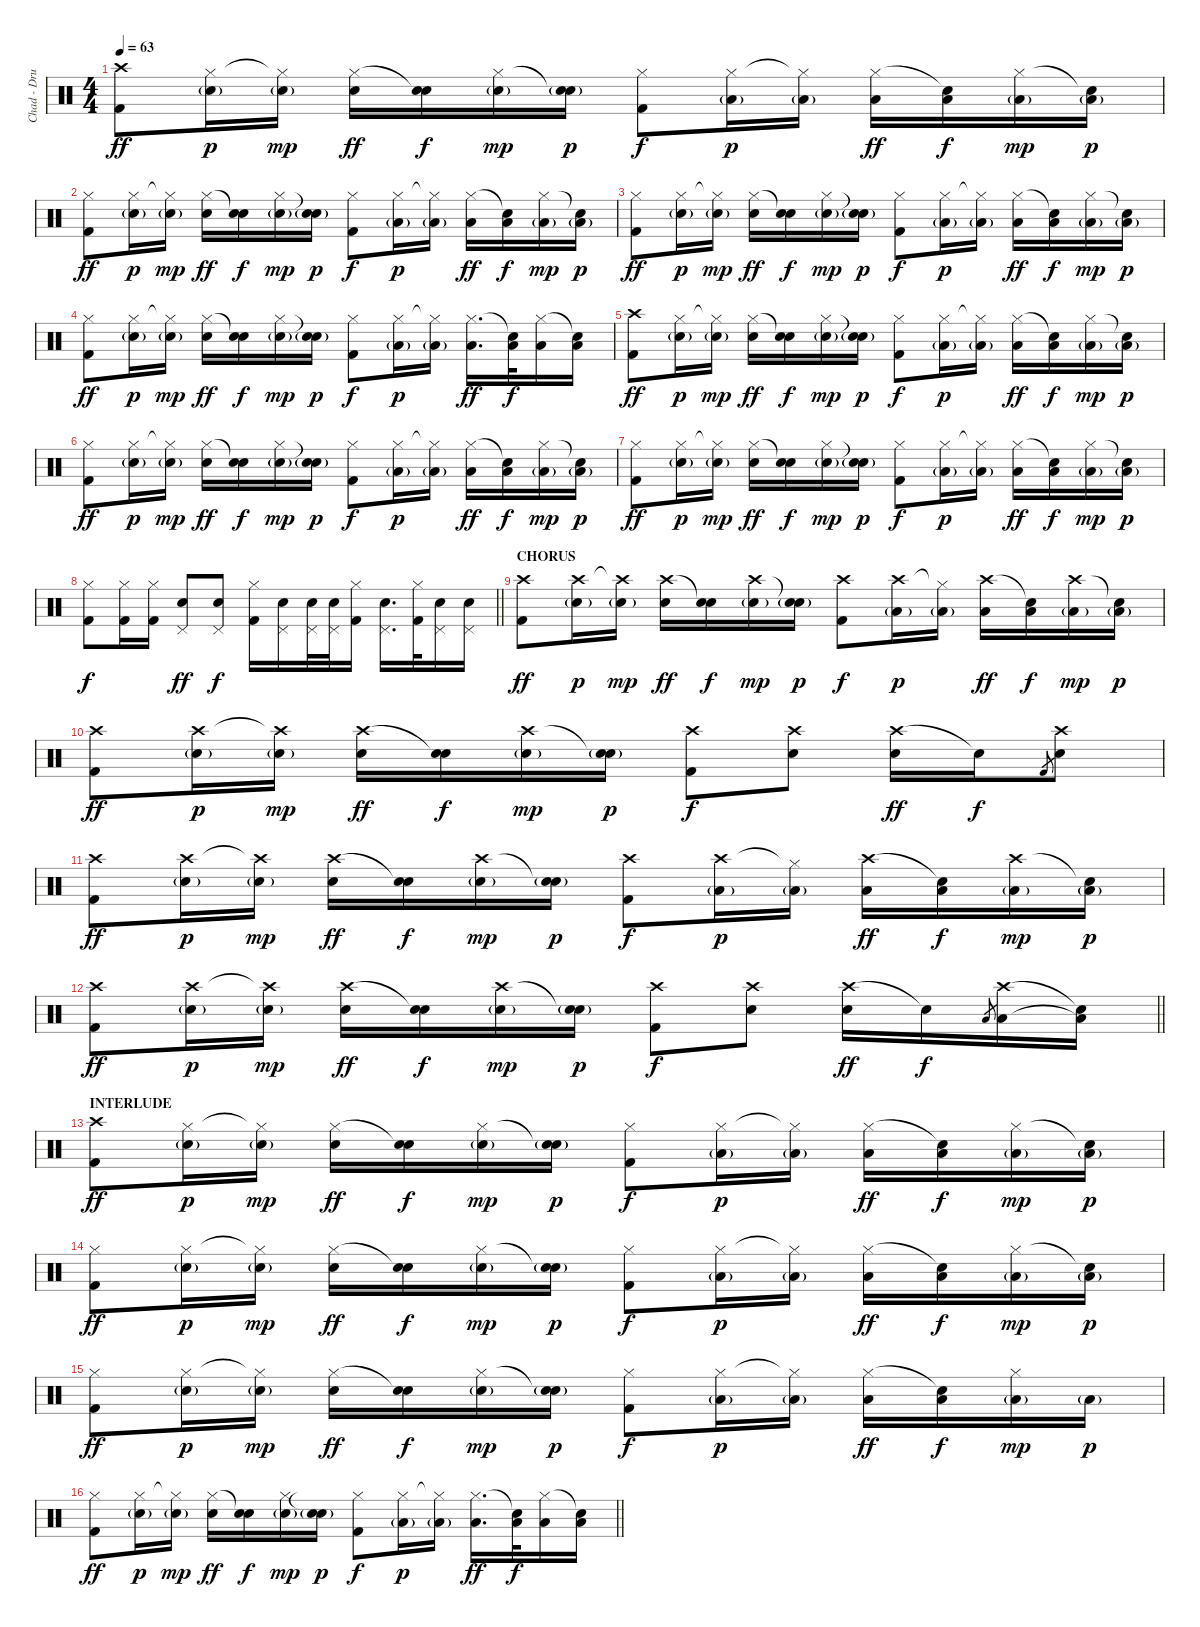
\track ("Chad - Drums" "Chad - Dru") {instrument percussion}
\staff {score}
\articulation defaults
\ts (4 4)
\tempo 63
\clef neutral
\ks c
("Crash high (hit)" "Kick (hit) 2").8{dy ff} ("Hi-Hat (closed)" "Snare (hit) 2"{g}).16{dy p} ("Hi-Hat (closed)"{t} "Snare (hit) 2"{g}).16{dy mp} ("Hi-Hat (closed)" "Snare (hit) 2").16{dy ff} ("Snare (hit)"{t} "Snare (hit) 2").16{dy f} ("Hi-Hat (closed)" "Snare (hit) 2"{g}).16{dy mp} ("Snare (hit)"{t} "Snare (hit) 2"{g}).16{dy p} ("Hi-Hat (closed)" "Kick (hit) 2").8{dy f} ("Hi-Hat (closed)" "Low Floor Tom (hit)"{g}).16{dy p} ("Hi-Hat (closed)"{t} "Low Floor Tom (hit)"{g}).16 ("Hi-Hat (closed)" "Low Floor Tom (hit)").16{dy ff} ("Snare (hit)"{t} "Low Floor Tom (hit)").16{dy f} ("Hi-Hat (closed)" "Low Floor Tom (hit)"{g}).16{dy mp} ("Snare (hit)"{t} "Low Floor Tom (hit)"{g}).16{dy p} |
("Hi-Hat (closed)" "Kick (hit) 2").8{dy ff} ("Hi-Hat (closed)" "Snare (hit) 2"{g}).16{dy p} ("Hi-Hat (closed)"{t} "Snare (hit) 2"{g}).16{dy mp} ("Hi-Hat (closed)" "Snare (hit) 2").16{dy ff} ("Snare (hit)"{t} "Snare (hit) 2").16{dy f} ("Hi-Hat (closed)" "Snare (hit) 2"{g}).16{dy mp} ("Snare (hit)"{t} "Snare (hit) 2"{g}).16{dy p} ("Hi-Hat (closed)" "Kick (hit) 2").8{dy f} ("Hi-Hat (closed)" "Low Floor Tom (hit)"{g}).16{dy p} ("Hi-Hat (closed)"{t} "Low Floor Tom (hit)"{g}).16 ("Hi-Hat (closed)" "Low Floor Tom (hit)").16{dy ff} ("Snare (hit)"{t} "Low Floor Tom (hit)").16{dy f} ("Hi-Hat (closed)" "Low Floor Tom (hit)"{g}).16{dy mp} ("Snare (hit)"{t} "Low Floor Tom (hit)"{g}).16{dy p} |
("Hi-Hat (closed)" "Kick (hit) 2").8{dy ff} ("Hi-Hat (closed)" "Snare (hit) 2"{g}).16{dy p} ("Hi-Hat (closed)"{t} "Snare (hit) 2"{g}).16{dy mp} ("Hi-Hat (closed)" "Snare (hit) 2").16{dy ff} ("Snare (hit)"{t} "Snare (hit) 2").16{dy f} ("Hi-Hat (closed)" "Snare (hit) 2"{g}).16{dy mp} ("Snare (hit)"{t} "Snare (hit) 2"{g}).16{dy p} ("Hi-Hat (closed)" "Kick (hit) 2").8{dy f} ("Hi-Hat (closed)" "Low Floor Tom (hit)"{g}).16{dy p} ("Hi-Hat (closed)"{t} "Low Floor Tom (hit)"{g}).16 ("Hi-Hat (closed)" "Low Floor Tom (hit)").16{dy ff} ("Snare (hit)"{t} "Low Floor Tom (hit)").16{dy f} ("Hi-Hat (closed)" "Low Floor Tom (hit)"{g}).16{dy mp} ("Snare (hit)"{t} "Low Floor Tom (hit)"{g}).16{dy p} |
("Hi-Hat (closed)" "Kick (hit) 2").8{dy ff} ("Hi-Hat (closed)" "Snare (hit) 2"{g}).16{dy p} ("Hi-Hat (closed)"{t} "Snare (hit) 2"{g}).16{dy mp} ("Hi-Hat (closed)" "Snare (hit) 2").16{dy ff} ("Snare (hit)"{t} "Snare (hit) 2").16{dy f} ("Hi-Hat (closed)" "Snare (hit) 2"{g}).16{dy mp} ("Snare (hit)"{t} "Snare (hit) 2"{g}).16{dy p} ("Hi-Hat (closed)" "Kick (hit) 2").8{dy f} ("Hi-Hat (closed)" "Low Floor Tom (hit)"{g}).16{dy p} ("Hi-Hat (closed)"{t} "Low Floor Tom (hit)"{g}).16 ("Hi-Hat (closed)" "Low Floor Tom (hit)").16{d dy ff} ("Snare (hit)"{t} "Low Floor Tom (hit)").32{dy f} ("Hi-Hat (closed)" "Low Floor Tom (hit)").16 ("Snare (hit)"{t} "Low Floor Tom (hit)").16 |
("Crash high (hit)" "Kick (hit) 2").8{dy ff} ("Hi-Hat (closed)" "Snare (hit) 2"{g}).16{dy p} ("Hi-Hat (closed)"{t} "Snare (hit) 2"{g}).16{dy mp} ("Hi-Hat (closed)" "Snare (hit) 2").16{dy ff} ("Snare (hit)"{t} "Snare (hit) 2").16{dy f} ("Hi-Hat (closed)" "Snare (hit) 2"{g}).16{dy mp} ("Snare (hit)"{t} "Snare (hit) 2"{g}).16{dy p} ("Hi-Hat (closed)" "Kick (hit) 2").8{dy f} ("Hi-Hat (closed)" "Low Floor Tom (hit)"{g}).16{dy p} ("Hi-Hat (closed)"{t} "Low Floor Tom (hit)"{g}).16 ("Hi-Hat (closed)" "Low Floor Tom (hit)").16{dy ff} ("Snare (hit)"{t} "Low Floor Tom (hit)").16{dy f} ("Hi-Hat (closed)" "Low Floor Tom (hit)"{g}).16{dy mp} ("Snare (hit)"{t} "Low Floor Tom (hit)"{g}).16{dy p} |
("Hi-Hat (closed)" "Kick (hit) 2").8{dy ff} ("Hi-Hat (closed)" "Snare (hit) 2"{g}).16{dy p} ("Hi-Hat (closed)"{t} "Snare (hit) 2"{g}).16{dy mp} ("Hi-Hat (closed)" "Snare (hit) 2").16{dy ff} ("Snare (hit)"{t} "Snare (hit) 2").16{dy f} ("Hi-Hat (closed)" "Snare (hit) 2"{g}).16{dy mp} ("Snare (hit)"{t} "Snare (hit) 2"{g}).16{dy p} ("Hi-Hat (closed)" "Kick (hit) 2").8{dy f} ("Hi-Hat (closed)" "Low Floor Tom (hit)"{g}).16{dy p} ("Hi-Hat (closed)"{t} "Low Floor Tom (hit)"{g}).16 ("Hi-Hat (closed)" "Low Floor Tom (hit)").16{dy ff} ("Snare (hit)"{t} "Low Floor Tom (hit)").16{dy f} ("Hi-Hat (closed)" "Low Floor Tom (hit)"{g}).16{dy mp} ("Snare (hit)"{t} "Low Floor Tom (hit)"{g}).16{dy p} |
("Hi-Hat (closed)" "Kick (hit) 2").8{dy ff} ("Hi-Hat (closed)" "Snare (hit) 2"{g}).16{dy p} ("Hi-Hat (closed)"{t} "Snare (hit) 2"{g}).16{dy mp} ("Hi-Hat (closed)" "Snare (hit) 2").16{dy ff} ("Snare (hit)"{t} "Snare (hit) 2").16{dy f} ("Hi-Hat (closed)" "Snare (hit) 2"{g}).16{dy mp} ("Snare (hit)"{t} "Snare (hit) 2"{g}).16{dy p} ("Hi-Hat (closed)" "Kick (hit) 2").8{dy f} ("Hi-Hat (closed)" "Low Floor Tom (hit)"{g}).16{dy p} ("Hi-Hat (closed)"{t} "Low Floor Tom (hit)"{g}).16 ("Hi-Hat (closed)" "Low Floor Tom (hit)").16{dy ff} ("Snare (hit)"{t} "Low Floor Tom (hit)").16{dy f} ("Hi-Hat (closed)" "Low Floor Tom (hit)"{g}).16{dy mp} ("Snare (hit)"{t} "Low Floor Tom (hit)"{g}).16{dy p} |
\barLineRight lightlight
("Hi-Hat (closed)" "Kick (hit) 2").8{dy f} ("Hi-Hat (closed)" "Kick (hit) 2").16 ("Hi-Hat (closed)" "Kick (hit) 2").16 ("Pedal Hi-Hat (hit)" "Snare (hit) 2").8{dy ff} ("Pedal Hi-Hat (hit)" "Snare (hit) 2").8{dy f} ("Hi-Hat (closed)" "Kick (hit) 2").16 ("Pedal Hi-Hat (hit)" "Snare (hit) 2").16 ("Pedal Hi-Hat (hit)" "Snare (hit) 2").32 ("Pedal Hi-Hat (hit)" "Snare (hit) 2").32 ("Hi-Hat (closed)" "Kick (hit) 2").16 ("Pedal Hi-Hat (hit)" "Snare (hit) 2").16{d} ("Hi-Hat (closed)" "Kick (hit) 2").32 ("Pedal Hi-Hat (hit)" "Snare (hit) 2").16 ("Pedal Hi-Hat (hit)" "Snare (hit) 2").16 |
\section ("" "CHORUS")
("Crash high (hit)" "Kick (hit) 2").8{dy ff volume 16} ("Crash high (hit)" "Snare (hit) 2"{g}).16{dy p} ("Crash high (hit)"{t} "Snare (hit) 2"{g}).16{dy mp} ("Crash high (hit)" "Snare (hit) 2").16{dy ff} ("Snare (hit)"{t} "Snare (hit) 2").16{dy f} ("Crash high (hit)" "Snare (hit) 2"{g}).16{dy mp} ("Snare (hit)"{t} "Snare (hit) 2"{g}).16{dy p} ("Crash high (hit)" "Kick (hit) 2").8{dy f} ("Crash high (hit)" "Low Floor Tom (hit)"{g}).16{dy p} ("Hi-Hat (closed)"{t} "Low Floor Tom (hit)"{g}).16 ("Crash high (hit)" "Low Floor Tom (hit)").16{dy ff} ("Snare (hit)"{t} "Low Floor Tom (hit)").16{dy f} ("Crash high (hit)" "Low Floor Tom (hit)"{g}).16{dy mp} ("Snare (hit)"{t} "Low Floor Tom (hit)"{g}).16{dy p} |
("Crash high (hit)" "Kick (hit) 2").8{dy ff} ("Crash high (hit)" "Snare (hit) 2"{g}).16{dy p} ("Crash high (hit)"{t} "Snare (hit) 2"{g}).16{dy mp} ("Crash high (hit)" "Snare (hit) 2").16{dy ff} ("Snare (hit)"{t} "Snare (hit) 2").16{dy f} ("Crash high (hit)" "Snare (hit) 2"{g}).16{dy mp} ("Snare (hit)"{t} "Snare (hit) 2"{g}).16{dy p} ("Crash high (hit)" "Kick (hit) 2").8{dy f} ("Crash high (hit)" "Snare (hit) 2").8 ("Crash high (hit)" "Snare (hit) 2").16{dy ff} "Snare (hit)"{t}.16{dy f} "Kick (hit) 2".8{gr} ("Crash high (hit)" "Snare (hit) 2").8 |
("Crash high (hit)" "Kick (hit) 2").8{dy ff} ("Crash high (hit)" "Snare (hit) 2"{g}).16{dy p} ("Crash high (hit)"{t} "Snare (hit) 2"{g}).16{dy mp} ("Crash high (hit)" "Snare (hit) 2").16{dy ff} ("Snare (hit)"{t} "Snare (hit) 2").16{dy f} ("Crash high (hit)" "Snare (hit) 2"{g}).16{dy mp} ("Snare (hit)"{t} "Snare (hit) 2"{g}).16{dy p} ("Crash high (hit)" "Kick (hit) 2").8{dy f} ("Crash high (hit)" "Low Floor Tom (hit)"{g}).16{dy p} ("Hi-Hat (closed)"{t} "Low Floor Tom (hit)"{g}).16 ("Crash high (hit)" "Low Floor Tom (hit)").16{dy ff} ("Snare (hit)"{t} "Low Floor Tom (hit)").16{dy f} ("Crash high (hit)" "Low Floor Tom (hit)"{g}).16{dy mp} ("Snare (hit)"{t} "Low Floor Tom (hit)"{g}).16{dy p} |
\barLineRight lightlight
("Crash high (hit)" "Kick (hit) 2").8{dy ff} ("Crash high (hit)" "Snare (hit) 2"{g}).16{dy p} ("Crash high (hit)"{t} "Snare (hit) 2"{g}).16{dy mp} ("Crash high (hit)" "Snare (hit) 2").16{dy ff} ("Snare (hit)"{t} "Snare (hit) 2").16{dy f} ("Crash high (hit)" "Snare (hit) 2"{g}).16{dy mp} ("Snare (hit)"{t} "Snare (hit) 2"{g}).16{dy p} ("Crash high (hit)" "Kick (hit) 2").8{dy f} ("Crash high (hit)" "Snare (hit) 2").8 ("Crash high (hit)" "Snare (hit) 2").16{dy ff} "Snare (hit)"{t}.16{dy f} "Low Floor Tom (hit)".8{gr} ("Crash high (hit)" "Low Floor Tom (hit)").16 ("Snare (hit)"{t} "Low Floor Tom (hit)"{t}).16 |
\section ("" "INTERLUDE")
("Crash high (hit)" "Kick (hit) 2").8{dy ff volume 12} ("Hi-Hat (closed)" "Snare (hit) 2"{g}).16{dy p} ("Hi-Hat (closed)"{t} "Snare (hit) 2"{g}).16{dy mp} ("Hi-Hat (closed)" "Snare (hit) 2").16{dy ff} ("Snare (hit)"{t} "Snare (hit) 2").16{dy f} ("Hi-Hat (closed)" "Snare (hit) 2"{g}).16{dy mp} ("Snare (hit)"{t} "Snare (hit) 2"{g}).16{dy p} ("Hi-Hat (closed)" "Kick (hit) 2").8{dy f} ("Hi-Hat (closed)" "Low Floor Tom (hit)"{g}).16{dy p} ("Hi-Hat (closed)"{t} "Low Floor Tom (hit)"{g}).16 ("Hi-Hat (closed)" "Low Floor Tom (hit)").16{dy ff} ("Snare (hit)"{t} "Low Floor Tom (hit)").16{dy f} ("Hi-Hat (closed)" "Low Floor Tom (hit)"{g}).16{dy mp} ("Snare (hit)"{t} "Low Floor Tom (hit)"{g}).16{dy p} |
("Hi-Hat (closed)" "Kick (hit) 2").8{dy ff} ("Hi-Hat (closed)" "Snare (hit) 2"{g}).16{dy p} ("Hi-Hat (closed)"{t} "Snare (hit) 2"{g}).16{dy mp} ("Hi-Hat (closed)" "Snare (hit) 2").16{dy ff} ("Snare (hit)"{t} "Snare (hit) 2").16{dy f} ("Hi-Hat (closed)" "Snare (hit) 2"{g}).16{dy mp} ("Snare (hit)"{t} "Snare (hit) 2"{g}).16{dy p} ("Hi-Hat (closed)" "Kick (hit) 2").8{dy f} ("Hi-Hat (closed)" "Low Floor Tom (hit)"{g}).16{dy p} ("Hi-Hat (closed)"{t} "Low Floor Tom (hit)"{g}).16 ("Hi-Hat (closed)" "Low Floor Tom (hit)").16{dy ff} ("Snare (hit)"{t} "Low Floor Tom (hit)").16{dy f} ("Hi-Hat (closed)" "Low Floor Tom (hit)"{g}).16{dy mp} ("Snare (hit)"{t} "Low Floor Tom (hit)"{g}).16{dy p} |
("Hi-Hat (closed)" "Kick (hit) 2").8{dy ff} ("Hi-Hat (closed)" "Snare (hit) 2"{g}).16{dy p} ("Hi-Hat (closed)"{t} "Snare (hit) 2"{g}).16{dy mp} ("Hi-Hat (closed)" "Snare (hit) 2").16{dy ff} ("Snare (hit)"{t} "Snare (hit) 2").16{dy f} ("Hi-Hat (closed)" "Snare (hit) 2"{g}).16{dy mp} ("Snare (hit)"{t} "Snare (hit) 2"{g}).16{dy p} ("Hi-Hat (closed)" "Kick (hit) 2").8{dy f} ("Hi-Hat (closed)" "Low Floor Tom (hit)"{g}).16{dy p} ("Hi-Hat (closed)"{t} "Low Floor Tom (hit)"{g}).16 ("Hi-Hat (closed)" "Low Floor Tom (hit)").16{dy ff} ("Snare (hit)"{t} "Low Floor Tom (hit)").16{dy f} ("Hi-Hat (closed)" "Low Floor Tom (hit)"{g}).16{dy mp} "Low Floor Tom (hit)"{g}.16{dy p} |
\barLineRight lightlight
("Hi-Hat (closed)" "Kick (hit) 2").8{dy ff} ("Hi-Hat (closed)" "Snare (hit) 2"{g}).16{dy p} ("Hi-Hat (closed)"{t} "Snare (hit) 2"{g}).16{dy mp} ("Hi-Hat (closed)" "Snare (hit) 2").16{dy ff} ("Snare (hit)"{t} "Snare (hit) 2").16{dy f} ("Hi-Hat (closed)" "Snare (hit) 2"{g}).16{dy mp} ("Snare (hit)"{t} "Snare (hit) 2"{g}).16{dy p} ("Hi-Hat (closed)" "Kick (hit) 2").8{dy f} ("Hi-Hat (closed)" "Low Floor Tom (hit)"{g}).16{dy p} ("Hi-Hat (closed)"{t} "Low Floor Tom (hit)"{g}).16 ("Hi-Hat (closed)" "Low Floor Tom (hit)").16{d dy ff} ("Snare (hit)"{t} "Low Floor Tom (hit)").32{dy f} ("Hi-Hat (closed)" "Low Floor Tom (hit)").16 ("Snare (hit)"{t} "Low Floor Tom (hit)").16
